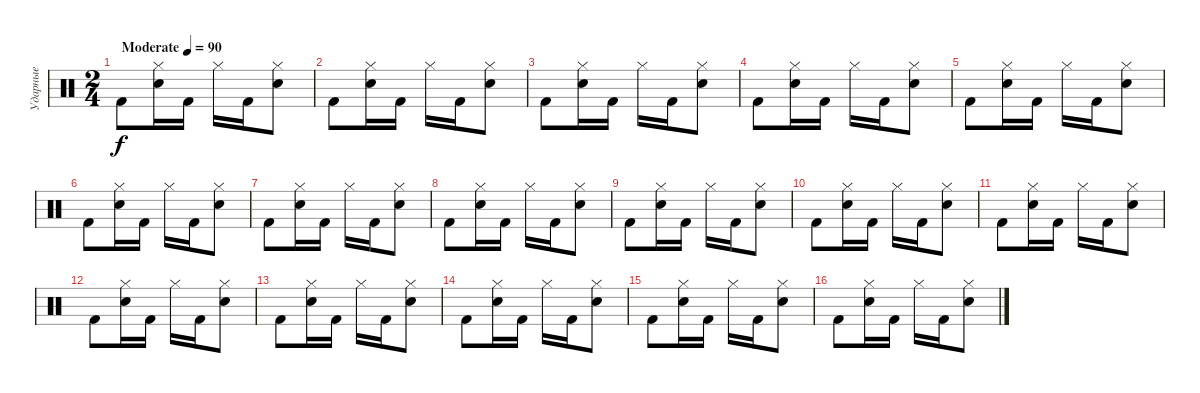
\track ("Ударные" "Ударные") {instrument percussion}
\staff {score}
\articulation defaults
\ts (2 4)
\tempo (90 "Moderate")
\clef neutral
\ks c "Kick (hit) 2".8{dy f}
("Hi-Hat (closed)" "Snare (hit) 2").16 "Kick (hit) 2".16 "Hi-Hat (closed)".16 "Kick (hit) 2".16 ("Hi-Hat (closed)" "Snare (hit) 2").8 |
"Kick (hit) 2".8 ("Hi-Hat (closed)" "Snare (hit) 2").16 "Kick (hit) 2".16 "Hi-Hat (closed)".16 "Kick (hit) 2".16 ("Hi-Hat (closed)" "Snare (hit) 2").8 |
"Kick (hit) 2".8 ("Hi-Hat (closed)" "Snare (hit) 2").16 "Kick (hit) 2".16 "Hi-Hat (closed)".16 "Kick (hit) 2".16 ("Hi-Hat (closed)" "Snare (hit) 2").8 |
"Kick (hit) 2".8 ("Hi-Hat (closed)" "Snare (hit) 2").16 "Kick (hit) 2".16 "Hi-Hat (closed)".16 "Kick (hit) 2".16 ("Hi-Hat (closed)" "Snare (hit) 2").8 |
"Kick (hit) 2".8 ("Hi-Hat (closed)" "Snare (hit) 2").16 "Kick (hit) 2".16 "Hi-Hat (closed)".16 "Kick (hit) 2".16 ("Hi-Hat (closed)" "Snare (hit) 2").8 |
"Kick (hit) 2".8 ("Hi-Hat (closed)" "Snare (hit) 2").16 "Kick (hit) 2".16 "Hi-Hat (closed)".16 "Kick (hit) 2".16 ("Hi-Hat (closed)" "Snare (hit) 2").8 |
"Kick (hit) 2".8 ("Hi-Hat (closed)" "Snare (hit) 2").16 "Kick (hit) 2".16 "Hi-Hat (closed)".16 "Kick (hit) 2".16 ("Hi-Hat (closed)" "Snare (hit) 2").8 |
"Kick (hit) 2".8 ("Hi-Hat (closed)" "Snare (hit) 2").16 "Kick (hit) 2".16 "Hi-Hat (closed)".16 "Kick (hit) 2".16 ("Hi-Hat (closed)" "Snare (hit) 2").8 |
"Kick (hit) 2".8 ("Hi-Hat (closed)" "Snare (hit) 2").16 "Kick (hit) 2".16 "Hi-Hat (closed)".16 "Kick (hit) 2".16 ("Hi-Hat (closed)" "Snare (hit) 2").8 |
"Kick (hit) 2".8 ("Hi-Hat (closed)" "Snare (hit) 2").16 "Kick (hit) 2".16 "Hi-Hat (closed)".16 "Kick (hit) 2".16 ("Hi-Hat (closed)" "Snare (hit) 2").8 |
"Kick (hit) 2".8 ("Hi-Hat (closed)" "Snare (hit) 2").16 "Kick (hit) 2".16 "Hi-Hat (closed)".16 "Kick (hit) 2".16 ("Hi-Hat (closed)" "Snare (hit) 2").8 |
"Kick (hit) 2".8 ("Hi-Hat (closed)" "Snare (hit) 2").16 "Kick (hit) 2".16 "Hi-Hat (closed)".16 "Kick (hit) 2".16 ("Hi-Hat (closed)" "Snare (hit) 2").8 |
"Kick (hit) 2".8 ("Hi-Hat (closed)" "Snare (hit) 2").16 "Kick (hit) 2".16 "Hi-Hat (closed)".16 "Kick (hit) 2".16 ("Hi-Hat (closed)" "Snare (hit) 2").8 |
"Kick (hit) 2".8 ("Hi-Hat (closed)" "Snare (hit) 2").16 "Kick (hit) 2".16 "Hi-Hat (closed)".16 "Kick (hit) 2".16 ("Hi-Hat (closed)" "Snare (hit) 2").8 |
"Kick (hit) 2".8 ("Hi-Hat (closed)" "Snare (hit) 2").16 "Kick (hit) 2".16 "Hi-Hat (closed)".16 "Kick (hit) 2".16 ("Hi-Hat (closed)" "Snare (hit) 2").8 |
"Kick (hit) 2".8 ("Hi-Hat (closed)" "Snare (hit) 2").16 "Kick (hit) 2".16 "Hi-Hat (closed)".16 "Kick (hit) 2".16 ("Hi-Hat (closed)" "Snare (hit) 2").8
